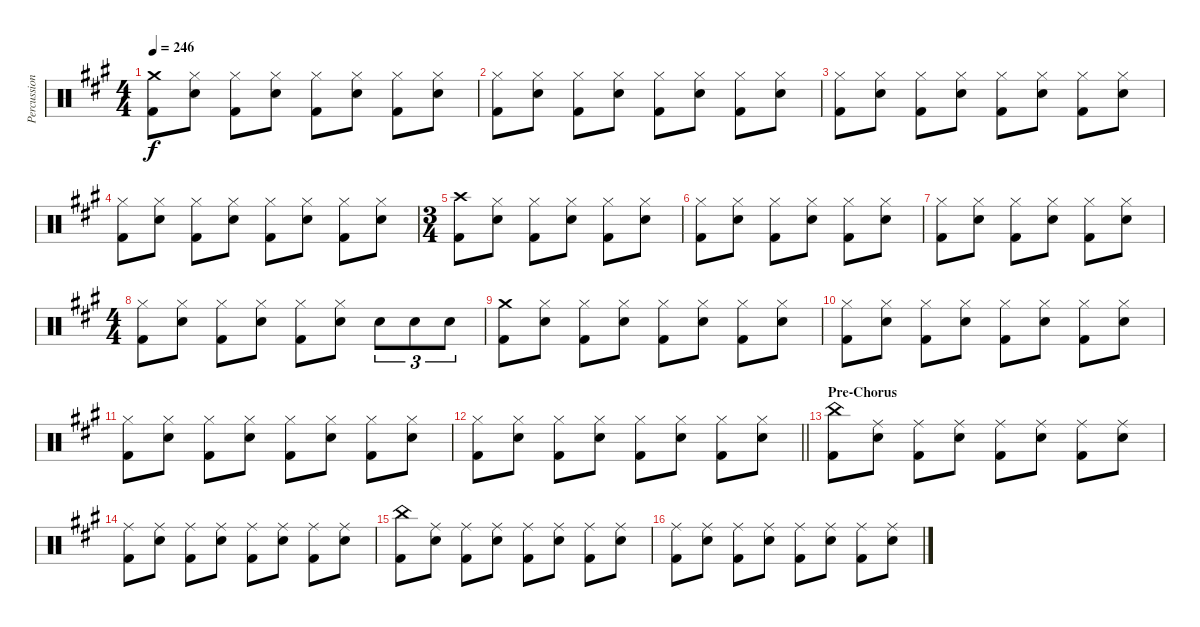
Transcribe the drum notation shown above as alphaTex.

\track ("Percussion" "Percussion") {instrument percussion}
\staff {score}
\articulation defaults
\ts (4 4)
\tempo 246
\clef neutral
\ks f#minor
("Crash medium (hit)" "Kick (hit) 2").8{dy f} ("Hi-Hat (closed)" "Electric Snare (hit)").8 ("Hi-Hat (closed)" "Kick (hit) 2").8 ("Hi-Hat (closed)" "Electric Snare (hit)").8 ("Hi-Hat (closed)" "Kick (hit) 2").8 ("Hi-Hat (closed)" "Electric Snare (hit)").8 ("Hi-Hat (closed)" "Kick (hit) 2").8 ("Hi-Hat (closed)" "Electric Snare (hit)").8 |
("Hi-Hat (closed)" "Kick (hit) 2").8 ("Hi-Hat (closed)" "Electric Snare (hit)").8 ("Hi-Hat (closed)" "Kick (hit) 2").8 ("Hi-Hat (closed)" "Electric Snare (hit)").8 ("Hi-Hat (closed)" "Kick (hit) 2").8 ("Hi-Hat (closed)" "Electric Snare (hit)").8 ("Hi-Hat (closed)" "Kick (hit) 2").8 ("Hi-Hat (closed)" "Electric Snare (hit)").8 |
("Hi-Hat (closed)" "Kick (hit) 2").8 ("Hi-Hat (closed)" "Electric Snare (hit)").8 ("Hi-Hat (closed)" "Kick (hit) 2").8 ("Hi-Hat (closed)" "Electric Snare (hit)").8 ("Hi-Hat (closed)" "Kick (hit) 2").8 ("Hi-Hat (closed)" "Electric Snare (hit)").8 ("Hi-Hat (closed)" "Kick (hit) 2").8 ("Hi-Hat (closed)" "Electric Snare (hit)").8 |
("Hi-Hat (closed)" "Kick (hit) 2").8 ("Hi-Hat (closed)" "Electric Snare (hit)").8 ("Hi-Hat (closed)" "Kick (hit) 2").8 ("Hi-Hat (closed)" "Electric Snare (hit)").8 ("Hi-Hat (closed)" "Kick (hit) 2").8 ("Hi-Hat (closed)" "Electric Snare (hit)").8 ("Hi-Hat (closed)" "Kick (hit) 2").8 ("Hi-Hat (closed)" "Electric Snare (hit)").8 |
\ts (3 4)
("Crash high (hit)" "Kick (hit) 2").8 ("Hi-Hat (closed)" "Electric Snare (hit)").8 ("Hi-Hat (closed)" "Kick (hit) 2").8 ("Hi-Hat (closed)" "Electric Snare (hit)").8 ("Hi-Hat (closed)" "Kick (hit) 2").8 ("Hi-Hat (closed)" "Electric Snare (hit)").8 |
("Hi-Hat (closed)" "Kick (hit) 2").8 ("Hi-Hat (closed)" "Electric Snare (hit)").8 ("Hi-Hat (closed)" "Kick (hit) 2").8 ("Hi-Hat (closed)" "Electric Snare (hit)").8 ("Hi-Hat (closed)" "Kick (hit) 2").8 ("Hi-Hat (closed)" "Electric Snare (hit)").8 |
("Hi-Hat (closed)" "Kick (hit) 2").8 ("Hi-Hat (closed)" "Electric Snare (hit)").8 ("Hi-Hat (closed)" "Kick (hit) 2").8 ("Hi-Hat (closed)" "Electric Snare (hit)").8 ("Hi-Hat (closed)" "Kick (hit) 2").8 ("Hi-Hat (closed)" "Electric Snare (hit)").8 |
\ts (4 4)
("Hi-Hat (closed)" "Kick (hit) 2").8 ("Hi-Hat (closed)" "Electric Snare (hit)").8 ("Hi-Hat (closed)" "Kick (hit) 2").8 ("Hi-Hat (closed)" "Electric Snare (hit)").8 ("Hi-Hat (closed)" "Kick (hit) 2").8 ("Hi-Hat (closed)" "Electric Snare (hit)").8 "Electric Snare (hit)".8{tu (3 2)} "Electric Snare (hit)".8{tu (3 2)} "Electric Snare (hit)".8{tu (3 2)} |
("Crash medium (hit)" "Kick (hit) 2").8 ("Hi-Hat (closed)" "Electric Snare (hit)").8 ("Hi-Hat (closed)" "Kick (hit) 2").8 ("Hi-Hat (closed)" "Electric Snare (hit)").8 ("Hi-Hat (closed)" "Kick (hit) 2").8 ("Hi-Hat (closed)" "Electric Snare (hit)").8 ("Hi-Hat (closed)" "Kick (hit) 2").8 ("Hi-Hat (closed)" "Electric Snare (hit)").8 |
("Hi-Hat (closed)" "Kick (hit) 2").8 ("Hi-Hat (closed)" "Electric Snare (hit)").8 ("Hi-Hat (closed)" "Kick (hit) 2").8 ("Hi-Hat (closed)" "Electric Snare (hit)").8 ("Hi-Hat (closed)" "Kick (hit) 2").8 ("Hi-Hat (closed)" "Electric Snare (hit)").8 ("Hi-Hat (closed)" "Kick (hit) 2").8 ("Hi-Hat (closed)" "Electric Snare (hit)").8 |
("Hi-Hat (closed)" "Kick (hit) 2").8 ("Hi-Hat (closed)" "Electric Snare (hit)").8 ("Hi-Hat (closed)" "Kick (hit) 2").8 ("Hi-Hat (closed)" "Electric Snare (hit)").8 ("Hi-Hat (closed)" "Kick (hit) 2").8 ("Hi-Hat (closed)" "Electric Snare (hit)").8 ("Hi-Hat (closed)" "Kick (hit) 2").8 ("Hi-Hat (closed)" "Electric Snare (hit)").8 |
\barLineRight lightlight
("Hi-Hat (closed)" "Kick (hit) 2").8 ("Hi-Hat (closed)" "Electric Snare (hit)").8 ("Hi-Hat (closed)" "Kick (hit) 2").8 ("Hi-Hat (closed)" "Electric Snare (hit)").8 ("Hi-Hat (closed)" "Kick (hit) 2").8 ("Hi-Hat (closed)" "Electric Snare (hit)").8 ("Hi-Hat (closed)" "Kick (hit) 2").8 ("Hi-Hat (closed)" "Electric Snare (hit)").8 |
\section ("" "Pre-Chorus")
("China (hit)" "Kick (hit) 2").8 ("Ride (middle)" "Electric Snare (hit)").8 ("Ride (middle)" "Kick (hit) 2").8 ("Ride (middle)" "Electric Snare (hit)").8 ("Ride (middle)" "Kick (hit) 2").8 ("Ride (middle)" "Electric Snare (hit)").8 ("Ride (middle)" "Kick (hit) 2").8 ("Ride (middle)" "Electric Snare (hit)").8 |
("Ride (middle)" "Kick (hit) 2").8 ("Ride (middle)" "Electric Snare (hit)").8 ("Ride (middle)" "Kick (hit) 2").8 ("Ride (middle)" "Electric Snare (hit)").8 ("Ride (middle)" "Kick (hit) 2").8 ("Ride (middle)" "Electric Snare (hit)").8 ("Ride (middle)" "Kick (hit) 2").8 ("Ride (middle)" "Electric Snare (hit)").8 |
("China (hit)" "Kick (hit) 2").8 ("Ride (middle)" "Electric Snare (hit)").8 ("Ride (middle)" "Kick (hit) 2").8 ("Ride (middle)" "Electric Snare (hit)").8 ("Ride (middle)" "Kick (hit) 2").8 ("Ride (middle)" "Electric Snare (hit)").8 ("Ride (middle)" "Kick (hit) 2").8 ("Ride (middle)" "Electric Snare (hit)").8 |
("Ride (middle)" "Kick (hit) 2").8 ("Ride (middle)" "Electric Snare (hit)").8 ("Ride (middle)" "Kick (hit) 2").8 ("Ride (middle)" "Electric Snare (hit)").8 ("Ride (middle)" "Kick (hit) 2").8 ("Ride (middle)" "Electric Snare (hit)").8 ("Ride (middle)" "Kick (hit) 2").8 ("Ride (middle)" "Electric Snare (hit)").8
